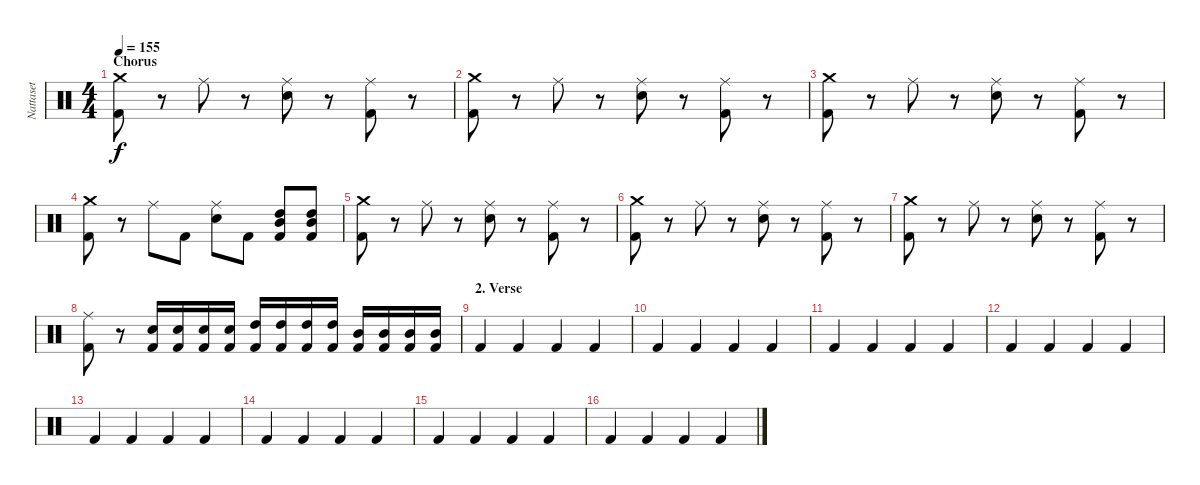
\track ("Nattaset" "Nattaset") {instrument percussion}
\staff {score}
\articulation defaults
\ts (4 4)
\section ("" "Chorus")
\tempo 155
\clef neutral
\ks c
("Crash medium (hit)" "Kick (hit) 2").8{dy f} r.8 "Ride (middle)".8 r.8 ("Ride (middle)" "Electric Snare (hit)").8 r.8 ("Ride (middle)" "Kick (hit) 2").8 r.8 |
("Crash medium (hit)" "Kick (hit) 2").8 r.8 "Ride (middle)".8 r.8 ("Ride (middle)" "Electric Snare (hit)").8 r.8 ("Ride (middle)" "Kick (hit) 2").8 r.8 |
("Crash medium (hit)" "Kick (hit) 2").8 r.8 "Ride (middle)".8 r.8 ("Ride (middle)" "Electric Snare (hit)").8 r.8 ("Ride (middle)" "Kick (hit) 2").8 r.8 |
("Crash medium (hit)" "Kick (hit) 2").8 r.8 "Ride (middle)".8 "Kick (hit) 2".8 ("Ride (middle)" "Electric Snare (hit)").8 "Kick (hit) 2".8 ("Mid Tom (hit)" "High Tom (hit)" "Kick (hit) 2").8 ("Mid Tom (hit)" "High Tom (hit)" "Kick (hit) 2").8 |
("Crash medium (hit)" "Kick (hit) 2").8 r.8 "Ride (middle)".8 r.8 ("Ride (middle)" "Electric Snare (hit)").8 r.8 ("Ride (middle)" "Kick (hit) 2").8 r.8 |
("Crash medium (hit)" "Kick (hit) 2").8 r.8 "Ride (middle)".8 r.8 ("Ride (middle)" "Electric Snare (hit)").8 r.8 ("Ride (middle)" "Kick (hit) 2").8 r.8 |
("Crash medium (hit)" "Kick (hit) 2").8 r.8 "Ride (middle)".8 r.8 ("Ride (middle)" "Electric Snare (hit)").8 r.8 ("Ride (middle)" "Kick (hit) 2").8 r.8 |
("Ride (middle)" "Kick (hit) 2").8 r.8 ("Electric Snare (hit)" "Kick (hit) 2").16 ("Electric Snare (hit)" "Kick (hit) 2").16 ("Electric Snare (hit)" "Kick (hit) 2").16 ("Electric Snare (hit)" "Kick (hit) 2").16 ("High Tom (hit)" "Kick (hit) 2").16 ("High Tom (hit)" "Kick (hit) 2").16 ("High Tom (hit)" "Kick (hit) 2").16 ("High Tom (hit)" "Kick (hit) 2").16 ("Mid Tom (hit)" "Kick (hit) 2").16 ("Mid Tom (hit)" "Kick (hit) 2").16 ("Mid Tom (hit)" "Kick (hit) 2").16 ("Mid Tom (hit)" "Kick (hit) 2").16 |
\section ("" "2. Verse")
"Kick (hit) 2".4 "Kick (hit) 2".4 "Kick (hit) 2".4 "Kick (hit) 2".4 |
"Kick (hit) 2".4 "Kick (hit) 2".4 "Kick (hit) 2".4 "Kick (hit) 2".4 |
"Kick (hit) 2".4 "Kick (hit) 2".4 "Kick (hit) 2".4 "Kick (hit) 2".4 |
"Kick (hit) 2".4 "Kick (hit) 2".4 "Kick (hit) 2".4 "Kick (hit) 2".4 |
"Kick (hit) 2".4 "Kick (hit) 2".4 "Kick (hit) 2".4 "Kick (hit) 2".4 |
"Kick (hit) 2".4 "Kick (hit) 2".4 "Kick (hit) 2".4 "Kick (hit) 2".4 |
"Kick (hit) 2".4 "Kick (hit) 2".4 "Kick (hit) 2".4 "Kick (hit) 2".4 |
"Kick (hit) 2".4 "Kick (hit) 2".4 "Kick (hit) 2".4 "Kick (hit) 2".4
